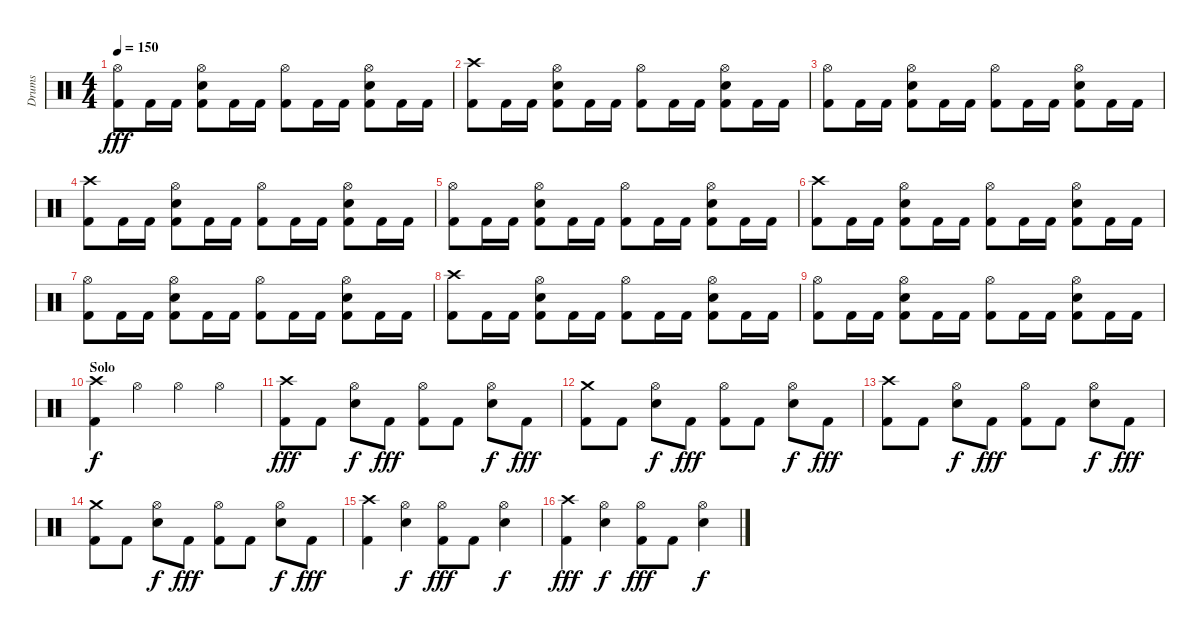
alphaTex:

\track ("Drums" "Drums") {instrument percussion}
\staff {score}
\articulation defaults
\ts (4 4)
\tempo 150
\clef neutral
\ks c
("Hi-Hat (open)" "Kick (hit) 2").8{dy fff} "Kick (hit) 2".16 "Kick (hit) 2".16 ("Hi-Hat (open)" "Snare (hit) 2" "Kick (hit) 2").8 "Kick (hit) 2".16 "Kick (hit) 2".16 ("Hi-Hat (open)" "Kick (hit) 2").8 "Kick (hit) 2".16 "Kick (hit) 2".16 ("Hi-Hat (open)" "Snare (hit) 2" "Kick (hit) 2").8 "Kick (hit) 2".16 "Kick (hit) 2".16 |
("Crash high (hit)" "Kick (hit) 2").8 "Kick (hit) 2".16 "Kick (hit) 2".16 ("Hi-Hat (open)" "Snare (hit) 2" "Kick (hit) 2").8 "Kick (hit) 2".16 "Kick (hit) 2".16 ("Hi-Hat (open)" "Kick (hit) 2").8 "Kick (hit) 2".16 "Kick (hit) 2".16 ("Hi-Hat (open)" "Snare (hit) 2" "Kick (hit) 2").8 "Kick (hit) 2".16 "Kick (hit) 2".16 |
("Hi-Hat (open)" "Kick (hit) 2").8 "Kick (hit) 2".16 "Kick (hit) 2".16 ("Hi-Hat (open)" "Snare (hit) 2" "Kick (hit) 2").8 "Kick (hit) 2".16 "Kick (hit) 2".16 ("Hi-Hat (open)" "Kick (hit) 2").8 "Kick (hit) 2".16 "Kick (hit) 2".16 ("Hi-Hat (open)" "Snare (hit) 2" "Kick (hit) 2").8 "Kick (hit) 2".16 "Kick (hit) 2".16 |
("Crash high (hit)" "Kick (hit) 2").8 "Kick (hit) 2".16 "Kick (hit) 2".16 ("Hi-Hat (open)" "Snare (hit) 2" "Kick (hit) 2").8 "Kick (hit) 2".16 "Kick (hit) 2".16 ("Hi-Hat (open)" "Kick (hit) 2").8 "Kick (hit) 2".16 "Kick (hit) 2".16 ("Hi-Hat (open)" "Snare (hit) 2" "Kick (hit) 2").8 "Kick (hit) 2".16 "Kick (hit) 2".16 |
("Hi-Hat (open)" "Kick (hit) 2").8 "Kick (hit) 2".16 "Kick (hit) 2".16 ("Hi-Hat (open)" "Snare (hit) 2" "Kick (hit) 2").8 "Kick (hit) 2".16 "Kick (hit) 2".16 ("Hi-Hat (open)" "Kick (hit) 2").8 "Kick (hit) 2".16 "Kick (hit) 2".16 ("Hi-Hat (open)" "Snare (hit) 2" "Kick (hit) 2").8 "Kick (hit) 2".16 "Kick (hit) 2".16 |
("Crash high (hit)" "Kick (hit) 2").8 "Kick (hit) 2".16 "Kick (hit) 2".16 ("Hi-Hat (open)" "Snare (hit) 2" "Kick (hit) 2").8 "Kick (hit) 2".16 "Kick (hit) 2".16 ("Hi-Hat (open)" "Kick (hit) 2").8 "Kick (hit) 2".16 "Kick (hit) 2".16 ("Hi-Hat (open)" "Snare (hit) 2" "Kick (hit) 2").8 "Kick (hit) 2".16 "Kick (hit) 2".16 |
("Hi-Hat (open)" "Kick (hit) 2").8 "Kick (hit) 2".16 "Kick (hit) 2".16 ("Hi-Hat (open)" "Snare (hit) 2" "Kick (hit) 2").8 "Kick (hit) 2".16 "Kick (hit) 2".16 ("Hi-Hat (open)" "Kick (hit) 2").8 "Kick (hit) 2".16 "Kick (hit) 2".16 ("Hi-Hat (open)" "Snare (hit) 2" "Kick (hit) 2").8 "Kick (hit) 2".16 "Kick (hit) 2".16 |
("Crash high (hit)" "Kick (hit) 2").8 "Kick (hit) 2".16 "Kick (hit) 2".16 ("Hi-Hat (open)" "Snare (hit) 2" "Kick (hit) 2").8 "Kick (hit) 2".16 "Kick (hit) 2".16 ("Hi-Hat (open)" "Kick (hit) 2").8 "Kick (hit) 2".16 "Kick (hit) 2".16 ("Hi-Hat (open)" "Snare (hit) 2" "Kick (hit) 2").8 "Kick (hit) 2".16 "Kick (hit) 2".16 |
("Hi-Hat (open)" "Kick (hit) 2").8 "Kick (hit) 2".16 "Kick (hit) 2".16 ("Hi-Hat (open)" "Snare (hit) 2" "Kick (hit) 2").8 "Kick (hit) 2".16 "Kick (hit) 2".16 ("Hi-Hat (open)" "Kick (hit) 2").8 "Kick (hit) 2".16 "Kick (hit) 2".16 ("Hi-Hat (open)" "Snare (hit) 2" "Kick (hit) 2").8 "Kick (hit) 2".16 "Kick (hit) 2".16 |
\section ("" "Solo")
("Crash high (hit)" "Kick (hit) 2").4{dy f} "Hi-Hat (open)".4 "Hi-Hat (open)".4 "Hi-Hat (open)".4 |
\section ("" "")
("Crash high (hit)" "Kick (hit) 2").8{dy fff} "Kick (hit) 2".8 ("Hi-Hat (open)" "Snare (hit) 2").8{dy f} "Kick (hit) 2".8{dy fff} ("Hi-Hat (open)" "Kick (hit) 2").8 "Kick (hit) 2".8 ("Hi-Hat (open)" "Snare (hit) 2").8{dy f} "Kick (hit) 2".8{dy fff} |
("Crash medium (hit)" "Kick (hit) 2").8 "Kick (hit) 2".8 ("Hi-Hat (open)" "Snare (hit) 2").8{dy f} "Kick (hit) 2".8{dy fff} ("Hi-Hat (open)" "Kick (hit) 2").8 "Kick (hit) 2".8 ("Hi-Hat (open)" "Snare (hit) 2").8{dy f} "Kick (hit) 2".8{dy fff} |
("Crash high (hit)" "Kick (hit) 2").8 "Kick (hit) 2".8 ("Hi-Hat (open)" "Snare (hit) 2").8{dy f} "Kick (hit) 2".8{dy fff} ("Hi-Hat (open)" "Kick (hit) 2").8 "Kick (hit) 2".8 ("Hi-Hat (open)" "Snare (hit) 2").8{dy f} "Kick (hit) 2".8{dy fff} |
("Crash medium (hit)" "Kick (hit) 2").8 "Kick (hit) 2".8 ("Hi-Hat (open)" "Snare (hit) 2").8{dy f} "Kick (hit) 2".8{dy fff} ("Hi-Hat (open)" "Kick (hit) 2").8 "Kick (hit) 2".8 ("Hi-Hat (open)" "Snare (hit) 2").8{dy f} "Kick (hit) 2".8{dy fff} |
("Crash high (hit)" "Kick (hit) 2").4 ("Hi-Hat (open)" "Snare (hit) 2").4{dy f} ("Hi-Hat (open)" "Kick (hit) 2").8{dy fff} "Kick (hit) 2".8 ("Hi-Hat (open)" "Snare (hit) 2").4{dy f} |
("Crash high (hit)" "Kick (hit) 2").4{dy fff} ("Hi-Hat (open)" "Snare (hit) 2").4{dy f} ("Hi-Hat (open)" "Kick (hit) 2").8{dy fff} "Kick (hit) 2".8 ("Hi-Hat (open)" "Snare (hit) 2").4{dy f}
